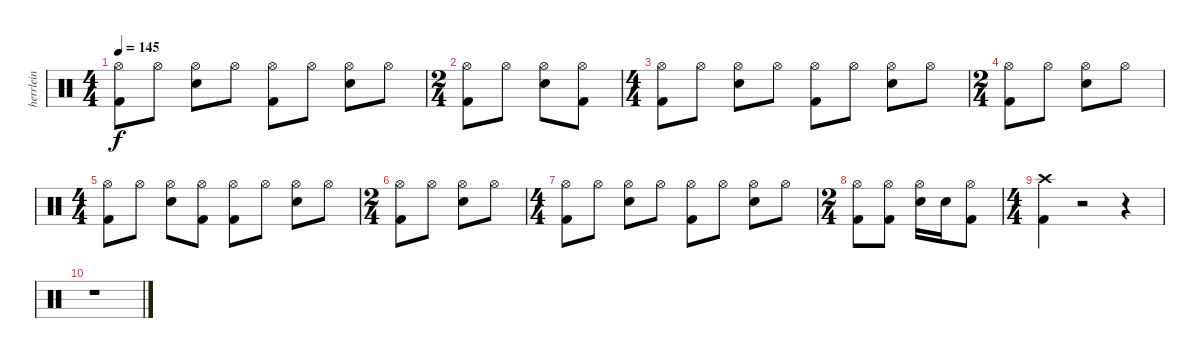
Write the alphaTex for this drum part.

\track ("herrlein" "herrlein") {instrument percussion}
\staff {score}
\articulation defaults
\ts (4 4)
\tempo 145
\clef neutral
\ks c
("Kick (hit) 2" "Hi-Hat (open)").8{dy f} "Hi-Hat (open)".8 ("Hi-Hat (open)" "Snare (hit) 2").8 "Hi-Hat (open)".8 ("Kick (hit) 2" "Hi-Hat (open)").8 "Hi-Hat (open)".8 ("Hi-Hat (open)" "Snare (hit) 2").8 "Hi-Hat (open)".8 |
\ts (2 4)
("Kick (hit) 2" "Hi-Hat (open)").8 "Hi-Hat (open)".8 ("Hi-Hat (open)" "Snare (hit) 2").8 ("Kick (hit) 2" "Hi-Hat (open)").8 |
\ts (4 4)
("Kick (hit) 2" "Hi-Hat (open)").8 "Hi-Hat (open)".8 ("Hi-Hat (open)" "Snare (hit) 2").8 "Hi-Hat (open)".8 ("Kick (hit) 2" "Hi-Hat (open)").8 "Hi-Hat (open)".8 ("Hi-Hat (open)" "Snare (hit) 2").8 "Hi-Hat (open)".8 |
\ts (2 4)
("Kick (hit) 2" "Hi-Hat (open)").8 "Hi-Hat (open)".8 ("Hi-Hat (open)" "Snare (hit) 2").8 "Hi-Hat (open)".8 |
\ts (4 4)
("Kick (hit) 2" "Hi-Hat (open)").8 "Hi-Hat (open)".8 ("Hi-Hat (open)" "Snare (hit) 2").8 ("Kick (hit) 2" "Hi-Hat (open)").8 ("Kick (hit) 2" "Hi-Hat (open)").8 "Hi-Hat (open)".8 ("Hi-Hat (open)" "Snare (hit) 2").8 "Hi-Hat (open)".8 |
\ts (2 4)
("Kick (hit) 2" "Hi-Hat (open)").8 "Hi-Hat (open)".8 ("Hi-Hat (open)" "Snare (hit) 2").8 "Hi-Hat (open)".8 |
\ts (4 4)
("Kick (hit) 2" "Hi-Hat (open)").8 "Hi-Hat (open)".8 ("Hi-Hat (open)" "Snare (hit) 2").8 "Hi-Hat (open)".8 ("Kick (hit) 2" "Hi-Hat (open)").8 "Hi-Hat (open)".8 ("Hi-Hat (open)" "Snare (hit) 2").8 "Hi-Hat (open)".8 |
\ts (2 4)
("Kick (hit) 2" "Hi-Hat (open)").8 ("Kick (hit) 2" "Hi-Hat (open)").8 ("Hi-Hat (open)" "Snare (hit) 2").16 "Snare (hit) 2".16 ("Kick (hit) 2" "Hi-Hat (open)").8 |
\ts (4 4)
("Kick (hit) 2" "Crash high (hit)").4 r.2 r.4 |
r.1
